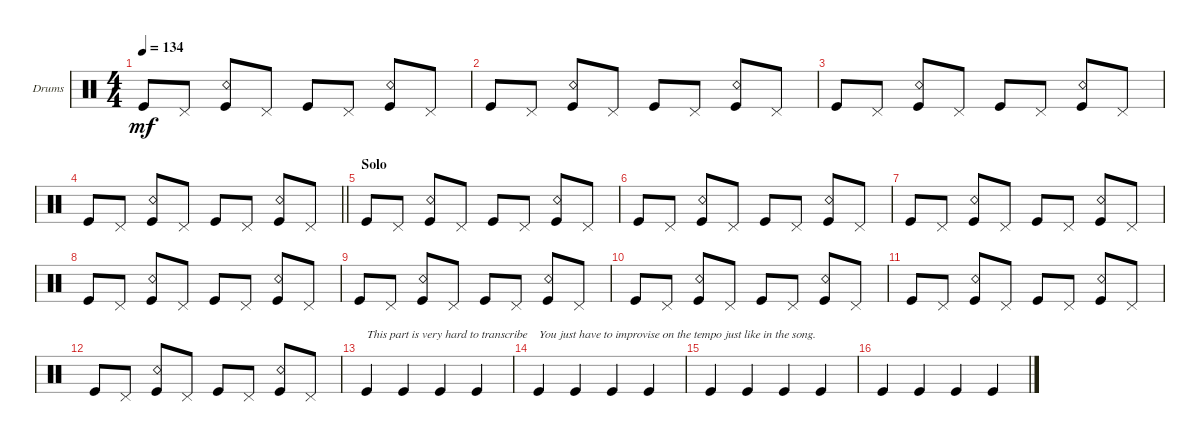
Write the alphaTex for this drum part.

\bracketExtendMode groupsimilarinstruments
\firstSystemTrackNameOrientation horizontal
\otherSystemsTrackNameOrientation horizontal
\track ("Nicky Bomba" "Drums") {instrument percussion}
\staff {score}
\articulation defaults
\ts (4 4)
\tempo 134
\clef neutral
\scale
0.333333
\ks c "Kick (hit)".8{dy mf} "Pedal Hi-Hat (hit)".8
("Kick (hit)" "Snare (rim shot)").8 "Pedal Hi-Hat (hit)".8 "Kick (hit)".8 "Pedal Hi-Hat (hit)".8 ("Kick (hit)" "Snare (rim shot)").8 "Pedal Hi-Hat (hit)".8 |
\scale
0.333333 "Kick (hit)".8 "Pedal Hi-Hat (hit)".8 ("Kick (hit)" "Snare (rim shot)").8 "Pedal Hi-Hat (hit)".8 "Kick (hit)".8 "Pedal Hi-Hat (hit)".8 ("Kick (hit)" "Snare (rim shot)").8 "Pedal Hi-Hat (hit)".8 |
\scale
0.333333 "Kick (hit)".8 "Pedal Hi-Hat (hit)".8 ("Kick (hit)" "Snare (rim shot)").8 "Pedal Hi-Hat (hit)".8 "Kick (hit)".8 "Pedal Hi-Hat (hit)".8 ("Kick (hit)" "Snare (rim shot)").8 "Pedal Hi-Hat (hit)".8 |
\scale
0.333333
\barLineRight lightlight "Kick (hit)".8 "Pedal Hi-Hat (hit)".8
("Kick (hit)" "Snare (rim shot)").8 "Pedal Hi-Hat (hit)".8 "Kick (hit)".8 "Pedal Hi-Hat (hit)".8 ("Kick (hit)" "Snare (rim shot)").8 "Pedal Hi-Hat (hit)".8 |
\section ("" "Solo")
\scale
0.333333 "Kick (hit)".8 "Pedal Hi-Hat (hit)".8 ("Kick (hit)" "Snare (rim shot)").8 "Pedal Hi-Hat (hit)".8 "Kick (hit)".8 "Pedal Hi-Hat (hit)".8 ("Kick (hit)" "Snare (rim shot)").8 "Pedal Hi-Hat (hit)".8 |
\scale
0.333333 "Kick (hit)".8 "Pedal Hi-Hat (hit)".8 ("Kick (hit)" "Snare (rim shot)").8 "Pedal Hi-Hat (hit)".8 "Kick (hit)".8 "Pedal Hi-Hat (hit)".8 ("Kick (hit)" "Snare (rim shot)").8 "Pedal Hi-Hat (hit)".8 |
\scale
0.333333 "Kick (hit)".8 "Pedal Hi-Hat (hit)".8 ("Kick (hit)" "Snare (rim shot)").8 "Pedal Hi-Hat (hit)".8 "Kick (hit)".8 "Pedal Hi-Hat (hit)".8 ("Kick (hit)" "Snare (rim shot)").8 "Pedal Hi-Hat (hit)".8 |
\scale
0.333333 "Kick (hit)".8 "Pedal Hi-Hat (hit)".8 ("Kick (hit)" "Snare (rim shot)").8 "Pedal Hi-Hat (hit)".8 "Kick (hit)".8 "Pedal Hi-Hat (hit)".8 ("Kick (hit)" "Snare (rim shot)").8 "Pedal Hi-Hat (hit)".8 |
\scale
0.333333 "Kick (hit)".8 "Pedal Hi-Hat (hit)".8 ("Kick (hit)" "Snare (rim shot)").8 "Pedal Hi-Hat (hit)".8 "Kick (hit)".8 "Pedal Hi-Hat (hit)".8 ("Kick (hit)" "Snare (rim shot)").8 "Pedal Hi-Hat (hit)".8 |
\scale
0.333333 "Kick (hit)".8 "Pedal Hi-Hat (hit)".8 ("Kick (hit)" "Snare (rim shot)").8 "Pedal Hi-Hat (hit)".8 "Kick (hit)".8 "Pedal Hi-Hat (hit)".8 ("Kick (hit)" "Snare (rim shot)").8 "Pedal Hi-Hat (hit)".8 |
\scale
0.333333 "Kick (hit)".8 "Pedal Hi-Hat (hit)".8 ("Kick (hit)" "Snare (rim shot)").8 "Pedal Hi-Hat (hit)".8 "Kick (hit)".8 "Pedal Hi-Hat (hit)".8 ("Kick (hit)" "Snare (rim shot)").8 "Pedal Hi-Hat (hit)".8 |
\scale
0.333333 "Kick (hit)".8 "Pedal Hi-Hat (hit)".8 ("Kick (hit)" "Snare (rim shot)").8 "Pedal Hi-Hat (hit)".8 "Kick (hit)".8 "Pedal Hi-Hat (hit)".8 ("Kick (hit)" "Snare (rim shot)").8 "Pedal Hi-Hat (hit)".8 |
\scale
0.333333 "Kick (hit)".4{txt "This part is very hard to transcribe"} "Kick (hit)".4 "Kick (hit)".4 "Kick (hit)".4 |
\scale
0.333333 "Kick (hit)".4{txt "You just have to improvise on the tempo just like in the song."} "Kick (hit)".4 "Kick (hit)".4 "Kick (hit)".4 |
\scale
0.333333 "Kick (hit)".4 "Kick (hit)".4 "Kick (hit)".4 "Kick (hit)".4 |
\scale
0.333333 "Kick (hit)".4 "Kick (hit)".4 "Kick (hit)".4 "Kick (hit)".4
